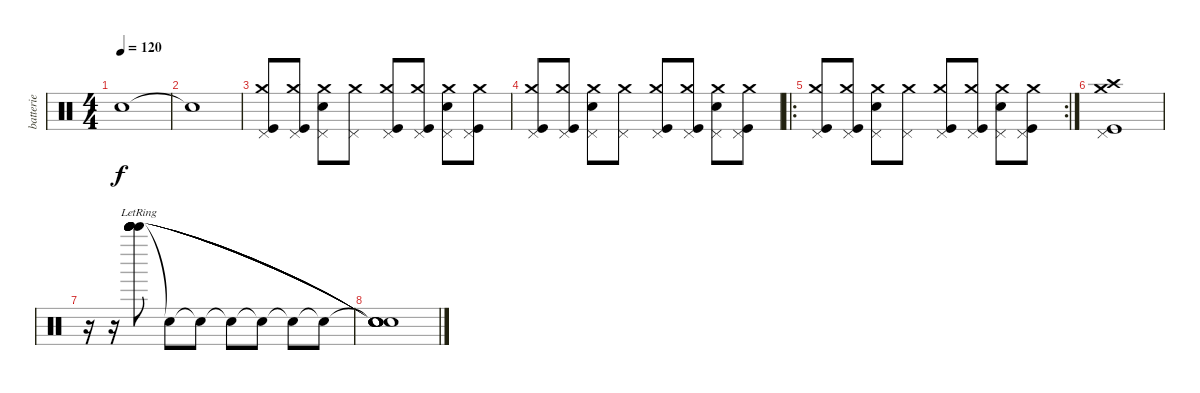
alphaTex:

\track ("batterie" "batterie") {instrument percussion}
\staff {score}
\articulation defaults
\ts (4 4)
\tempo 120
\clef neutral
\ks c "Snare (hit)"{t}.1{dy f}
|
"Snare (hit)"{t}.1 |
("Kick (hit)" "Crash medium (hit)" "Pedal Hi-Hat (hit)").8 ("Kick (hit)" "Crash medium (hit)" "Pedal Hi-Hat (hit)").8 ("Electric Snare (hit)" "Crash medium (hit)" "Pedal Hi-Hat (hit)").8 ("Pedal Hi-Hat (hit)" "Crash medium (hit)").8 ("Kick (hit)" "Crash medium (hit)" "Pedal Hi-Hat (hit)").8 ("Kick (hit)" "Crash medium (hit)" "Pedal Hi-Hat (hit)").8 ("Electric Snare (hit)" "Crash medium (hit)" "Pedal Hi-Hat (hit)").8 ("Kick (hit)" "Pedal Hi-Hat (hit)" "Crash medium (hit)").8 |
("Kick (hit)" "Crash medium (hit)" "Pedal Hi-Hat (hit)").8 ("Kick (hit)" "Crash medium (hit)" "Pedal Hi-Hat (hit)").8 ("Electric Snare (hit)" "Crash medium (hit)" "Pedal Hi-Hat (hit)").8 ("Pedal Hi-Hat (hit)" "Crash medium (hit)").8 ("Kick (hit)" "Crash medium (hit)" "Pedal Hi-Hat (hit)").8 ("Kick (hit)" "Crash medium (hit)" "Pedal Hi-Hat (hit)").8 ("Electric Snare (hit)" "Crash medium (hit)" "Pedal Hi-Hat (hit)").8 ("Kick (hit)" "Pedal Hi-Hat (hit)" "Crash medium (hit)").8 |
\ro
\rc 2
("Kick (hit)" "Crash medium (hit)" "Pedal Hi-Hat (hit)").8 ("Kick (hit)" "Crash medium (hit)" "Pedal Hi-Hat (hit)").8 ("Electric Snare (hit)" "Crash medium (hit)" "Pedal Hi-Hat (hit)").8 ("Pedal Hi-Hat (hit)" "Crash medium (hit)").8 ("Kick (hit)" "Crash medium (hit)" "Pedal Hi-Hat (hit)").8 ("Kick (hit)" "Crash medium (hit)" "Pedal Hi-Hat (hit)").8 ("Electric Snare (hit)" "Crash medium (hit)" "Pedal Hi-Hat (hit)").8 ("Kick (hit)" "Pedal Hi-Hat (hit)" "Crash medium (hit)").8 |
("Kick (hit)" "Pedal Hi-Hat (hit)" "Crash medium (hit)" "Crash high (hit)").1 |
r.16 r.16 ("Bell Tree (hit)"{lr} "Bell Tree (hit)"{lr} "Bell Tree (hit)"{lr} "Bell Tree (hit)"{lr} "Bell Tree (hit)"{lr} "Bell Tree (hit)"{lr}).8{bu 240 volume 16} "Snare (hit)"{t}.8 "Snare (hit)"{t}.8 "Snare (hit)"{t}.8 "Snare (hit)"{t}.8 "Snare (hit)"{t}.8 "Snare (hit)"{t}.8 |
("Snare (hit)"{t} "Snare (hit)"{t} "Snare (hit)"{t} "Snare (hit)"{t} "Snare (hit)"{t} "Snare (hit)"{t}).1
